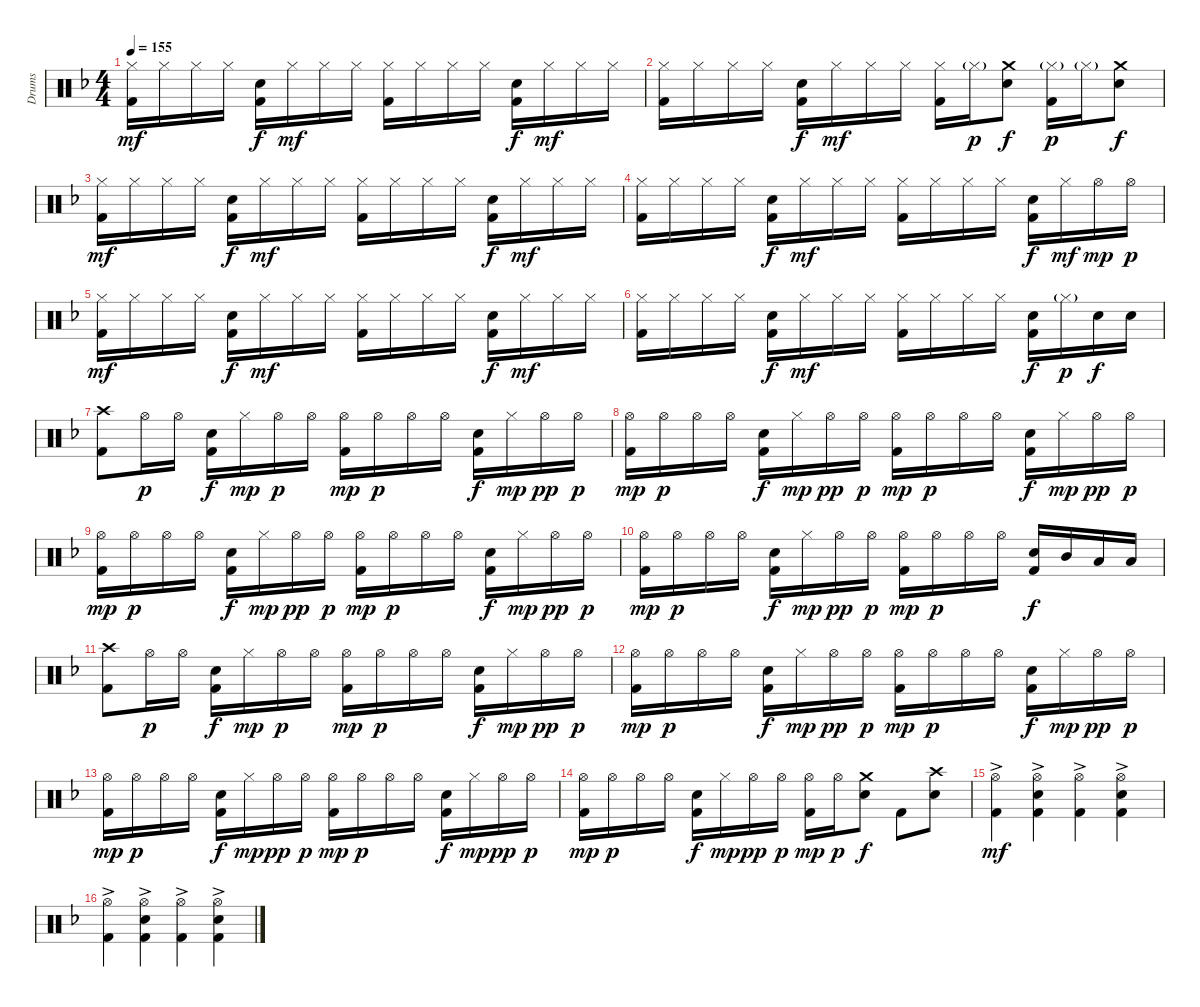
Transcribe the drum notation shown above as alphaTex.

\track ("Drums" "Drums") {instrument percussion}
\staff {score}
\articulation defaults
\ts (4 4)
\tempo 155
\clef neutral
\ks dminor
("Hi-Hat (closed)" "Kick (hit) 2").16{dy mf} "Hi-Hat (closed)".16 "Hi-Hat (closed)".16 "Hi-Hat (closed)".16 ("Snare (hit) 2" "Kick (hit) 2").16{dy f} "Hi-Hat (closed)".16{dy mf} "Hi-Hat (closed)".16 "Hi-Hat (closed)".16 ("Hi-Hat (closed)" "Kick (hit) 2").16 "Hi-Hat (closed)".16 "Hi-Hat (closed)".16 "Hi-Hat (closed)".16 ("Snare (hit) 2" "Kick (hit) 2").16{dy f} "Hi-Hat (closed)".16{dy mf} "Hi-Hat (closed)".16 "Hi-Hat (closed)".16 |
("Hi-Hat (closed)" "Kick (hit) 2").16 "Hi-Hat (closed)".16 "Hi-Hat (closed)".16 "Hi-Hat (closed)".16 ("Snare (hit) 2" "Kick (hit) 2").16{dy f} "Hi-Hat (closed)".16{dy mf} "Hi-Hat (closed)".16 "Hi-Hat (closed)".16 ("Hi-Hat (closed)" "Kick (hit) 2").16 "Hi-Hat (closed)"{g}.16{dy p} ("Crash medium (hit)" "Snare (hit) 2").8{dy f} ("Hi-Hat (closed)"{g} "Kick (hit) 2").16{dy p} "Hi-Hat (closed)"{g}.16 ("Crash medium (hit)" "Snare (hit) 2").8{dy f} |
("Hi-Hat (closed)" "Kick (hit) 2").16{dy mf} "Hi-Hat (closed)".16 "Hi-Hat (closed)".16 "Hi-Hat (closed)".16 ("Snare (hit) 2" "Kick (hit) 2").16{dy f} "Hi-Hat (closed)".16{dy mf} "Hi-Hat (closed)".16 "Hi-Hat (closed)".16 ("Hi-Hat (closed)" "Kick (hit) 2").16 "Hi-Hat (closed)".16 "Hi-Hat (closed)".16 "Hi-Hat (closed)".16 ("Snare (hit) 2" "Kick (hit) 2").16{dy f} "Hi-Hat (closed)".16{dy mf} "Hi-Hat (closed)".16 "Hi-Hat (closed)".16 |
("Hi-Hat (closed)" "Kick (hit) 2").16 "Hi-Hat (closed)".16 "Hi-Hat (closed)".16 "Hi-Hat (closed)".16 ("Snare (hit) 2" "Kick (hit) 2").16{dy f} "Hi-Hat (closed)".16{dy mf} "Hi-Hat (closed)".16 "Hi-Hat (closed)".16 ("Hi-Hat (closed)" "Kick (hit) 2").16 "Hi-Hat (closed)".16 "Hi-Hat (closed)".16 "Hi-Hat (closed)".16 ("Snare (hit) 2" "Kick (hit) 2").16{dy f} "Hi-Hat (closed)".16{dy mf} "Hi-Hat (open)".16{dy mp} "Hi-Hat (open)".16{dy p} |
("Hi-Hat (closed)" "Kick (hit) 2").16{dy mf} "Hi-Hat (closed)".16 "Hi-Hat (closed)".16 "Hi-Hat (closed)".16 ("Snare (hit) 2" "Kick (hit) 2").16{dy f} "Hi-Hat (closed)".16{dy mf} "Hi-Hat (closed)".16 "Hi-Hat (closed)".16 ("Hi-Hat (closed)" "Kick (hit) 2").16 "Hi-Hat (closed)".16 "Hi-Hat (closed)".16 "Hi-Hat (closed)".16 ("Snare (hit) 2" "Kick (hit) 2").16{dy f} "Hi-Hat (closed)".16{dy mf} "Hi-Hat (closed)".16 "Hi-Hat (closed)".16 |
("Hi-Hat (closed)" "Kick (hit) 2").16 "Hi-Hat (closed)".16 "Hi-Hat (closed)".16 "Hi-Hat (closed)".16 ("Snare (hit) 2" "Kick (hit) 2").16{dy f} "Hi-Hat (closed)".16{dy mf} "Hi-Hat (closed)".16 "Hi-Hat (closed)".16 ("Hi-Hat (closed)" "Kick (hit) 2").16 "Hi-Hat (closed)".16 "Hi-Hat (closed)".16 "Hi-Hat (closed)".16 ("Snare (hit) 2" "Kick (hit) 2").16{dy f} "Hi-Hat (closed)"{g}.16{dy p} "Snare (hit) 2".16{dy f} "Snare (hit) 2".16 |
("Crash high (hit)" "Kick (hit) 2").8 "Hi-Hat (open)".16{dy p} "Hi-Hat (open)".16 ("Snare (hit) 2" "Kick (hit) 2").16{dy f} "Hi-Hat (closed)".16{dy mp} "Hi-Hat (open)".16{dy p} "Hi-Hat (open)".16 ("Hi-Hat (open)" "Kick (hit) 2").16{dy mp} "Hi-Hat (open)".16{dy p} "Hi-Hat (open)".16 "Hi-Hat (open)".16 ("Snare (hit) 2" "Kick (hit) 2").16{dy f} "Hi-Hat (closed)".16{dy mp} "Hi-Hat (open)".16{dy pp} "Hi-Hat (open)".16{dy p} |
("Hi-Hat (open)" "Kick (hit) 2").16{dy mp} "Hi-Hat (open)".16{dy p} "Hi-Hat (open)".16 "Hi-Hat (open)".16 ("Snare (hit) 2" "Kick (hit) 2").16{dy f} "Hi-Hat (closed)".16{dy mp} "Hi-Hat (open)".16{dy pp} "Hi-Hat (open)".16{dy p} ("Hi-Hat (open)" "Kick (hit) 2").16{dy mp} "Hi-Hat (open)".16{dy p} "Hi-Hat (open)".16 "Hi-Hat (open)".16 ("Snare (hit) 2" "Kick (hit) 2").16{dy f} "Hi-Hat (closed)".16{dy mp} "Hi-Hat (open)".16{dy pp} "Hi-Hat (open)".16{dy p} |
("Hi-Hat (open)" "Kick (hit) 2").16{dy mp} "Hi-Hat (open)".16{dy p} "Hi-Hat (open)".16 "Hi-Hat (open)".16 ("Snare (hit) 2" "Kick (hit) 2").16{dy f} "Hi-Hat (closed)".16{dy mp} "Hi-Hat (open)".16{dy pp} "Hi-Hat (open)".16{dy p} ("Hi-Hat (open)" "Kick (hit) 2").16{dy mp} "Hi-Hat (open)".16{dy p} "Hi-Hat (open)".16 "Hi-Hat (open)".16 ("Snare (hit) 2" "Kick (hit) 2").16{dy f} "Hi-Hat (closed)".16{dy mp} "Hi-Hat (open)".16{dy pp} "Hi-Hat (open)".16{dy p} |
("Hi-Hat (open)" "Kick (hit) 2").16{dy mp} "Hi-Hat (open)".16{dy p} "Hi-Hat (open)".16 "Hi-Hat (open)".16 ("Snare (hit) 2" "Kick (hit) 2").16{dy f} "Hi-Hat (closed)".16{dy mp} "Hi-Hat (open)".16{dy pp} "Hi-Hat (open)".16{dy p} ("Hi-Hat (open)" "Kick (hit) 2").16{dy mp} "Hi-Hat (open)".16{dy p} "Hi-Hat (open)".16 "Hi-Hat (open)".16 ("Snare (hit) 2" "Kick (hit) 2").16{dy f} "Mid Tom (hit)".16 "Low Tom (hit)".16 "Low Tom (hit)".16 |
("Crash high (hit)" "Kick (hit) 2").8 "Hi-Hat (open)".16{dy p} "Hi-Hat (open)".16 ("Snare (hit) 2" "Kick (hit) 2").16{dy f} "Hi-Hat (closed)".16{dy mp} "Hi-Hat (open)".16{dy p} "Hi-Hat (open)".16 ("Hi-Hat (open)" "Kick (hit) 2").16{dy mp} "Hi-Hat (open)".16{dy p} "Hi-Hat (open)".16 "Hi-Hat (open)".16 ("Snare (hit) 2" "Kick (hit) 2").16{dy f} "Hi-Hat (closed)".16{dy mp} "Hi-Hat (open)".16{dy pp} "Hi-Hat (open)".16{dy p} |
("Hi-Hat (open)" "Kick (hit) 2").16{dy mp} "Hi-Hat (open)".16{dy p} "Hi-Hat (open)".16 "Hi-Hat (open)".16 ("Snare (hit) 2" "Kick (hit) 2").16{dy f} "Hi-Hat (closed)".16{dy mp} "Hi-Hat (open)".16{dy pp} "Hi-Hat (open)".16{dy p} ("Hi-Hat (open)" "Kick (hit) 2").16{dy mp} "Hi-Hat (open)".16{dy p} "Hi-Hat (open)".16 "Hi-Hat (open)".16 ("Snare (hit) 2" "Kick (hit) 2").16{dy f} "Hi-Hat (closed)".16{dy mp} "Hi-Hat (open)".16{dy pp} "Hi-Hat (open)".16{dy p} |
("Hi-Hat (open)" "Kick (hit) 2").16{dy mp} "Hi-Hat (open)".16{dy p} "Hi-Hat (open)".16 "Hi-Hat (open)".16 ("Snare (hit) 2" "Kick (hit) 2").16{dy f} "Hi-Hat (closed)".16{dy mp} "Hi-Hat (open)".16{dy pp} "Hi-Hat (open)".16{dy p} ("Hi-Hat (open)" "Kick (hit) 2").16{dy mp} "Hi-Hat (open)".16{dy p} "Hi-Hat (open)".16 "Hi-Hat (open)".16 ("Snare (hit) 2" "Kick (hit) 2").16{dy f} "Hi-Hat (closed)".16{dy mp} "Hi-Hat (open)".16{dy pp} "Hi-Hat (open)".16{dy p} |
("Hi-Hat (open)" "Kick (hit) 2").16{dy mp} "Hi-Hat (open)".16{dy p} "Hi-Hat (open)".16 "Hi-Hat (open)".16 ("Snare (hit) 2" "Kick (hit) 2").16{dy f} "Hi-Hat (closed)".16{dy mp} "Hi-Hat (open)".16{dy pp} "Hi-Hat (open)".16{dy p} ("Hi-Hat (open)" "Kick (hit) 2").16{dy mp} "Hi-Hat (open)".16{dy p} ("Crash medium (hit)" "Snare (hit) 2").8{dy f} "Kick (hit) 2".8 ("Crash high (hit)" "Snare (hit) 2").8 |
("Hi-Hat (open)"{ac} "Kick (hit) 2").4{dy mf} ("Hi-Hat (open)"{ac} "Snare (hit) 2" "Kick (hit) 2").4 ("Hi-Hat (open)"{ac} "Kick (hit) 2").4 ("Hi-Hat (open)"{ac} "Snare (hit) 2" "Kick (hit) 2").4 |
("Hi-Hat (open)"{ac} "Kick (hit) 2").4 ("Hi-Hat (open)"{ac} "Snare (hit) 2" "Kick (hit) 2").4 ("Hi-Hat (open)"{ac} "Kick (hit) 2").4 ("Hi-Hat (open)"{ac} "Snare (hit) 2" "Kick (hit) 2").4
